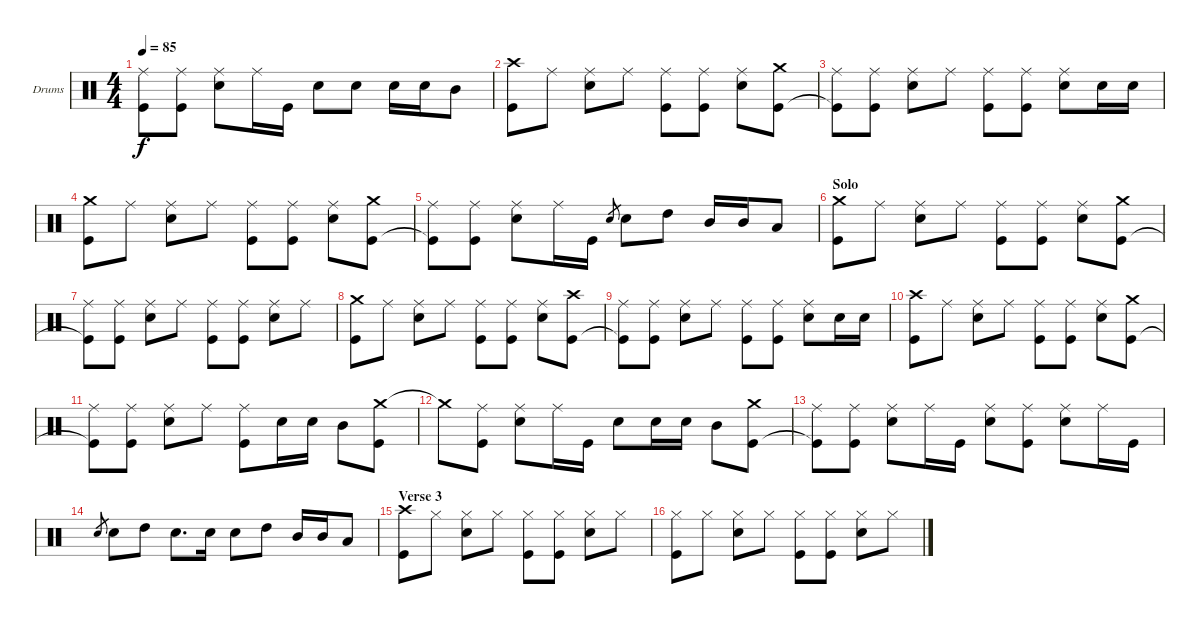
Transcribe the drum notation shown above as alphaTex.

\defaultSystemsLayout 4
\bracketExtendMode groupsimilarinstruments
\firstSystemTrackNameOrientation horizontal
\otherSystemsTrackNameOrientation horizontal
\track ("Matt" "Drums") {instrument percussion}
\staff {score}
\articulation defaults
\ts (4 4)
\tempo 85
\clef neutral
\ks c
("Ride (middle)" "Kick (hit)"{t}).8{dy f} ("Ride (middle)" "Kick (hit)").8 ("Ride (middle)" "Snare (hit) 2").8 "Ride (middle)".16 "Kick (hit)".16 "Snare (hit) 2".8 "Snare (hit) 2".8 "Snare (hit) 2".16 "Snare (hit) 2".16 "Mid Tom (hit)".8 |
("Crash high (hit)" "Kick (hit)").8 "Ride (middle)".8 ("Ride (middle)" "Snare (hit) 2").8 "Ride (middle)".8 ("Ride (middle)" "Kick (hit)").8 ("Ride (middle)" "Kick (hit)").8 ("Ride (middle)" "Snare (hit) 2").8 ("Crash medium (hit)" "Kick (hit)").8 |
("Ride (middle)" "Kick (hit)"{t}).8 ("Ride (middle)" "Kick (hit)").8 ("Ride (middle)" "Snare (hit) 2").8 "Ride (middle)".8 ("Ride (middle)" "Kick (hit)").8 ("Ride (middle)" "Kick (hit)").8 ("Ride (middle)" "Snare (hit) 2").8 "Snare (hit) 2".16 "Snare (hit) 2".16 |
("Crash medium (hit)" "Kick (hit)").8 "Ride (middle)".8 ("Ride (middle)" "Snare (hit) 2").8 "Ride (middle)".8 ("Ride (middle)" "Kick (hit)").8 ("Ride (middle)" "Kick (hit)").8 ("Ride (middle)" "Snare (hit) 2").8 ("Crash medium (hit)" "Kick (hit)").8 |
("Ride (middle)" "Kick (hit)"{t}).8 ("Ride (middle)" "Kick (hit)").8 ("Ride (middle)" "Snare (hit) 2").8 "Ride (middle)".16 "Kick (hit)".16 "Snare (hit) 2".8{gr} "Snare (hit) 2".8 "High Tom (hit)".8 "Mid Tom (hit)".16 "Mid Tom (hit)".16 "Low Tom (hit)".8 |
\section ("" "Solo")
("Crash medium (hit)" "Kick (hit)").8 "Ride (middle)".8 ("Ride (middle)" "Snare (hit) 2").8 "Ride (middle)".8 ("Ride (middle)" "Kick (hit)").8 ("Ride (middle)" "Kick (hit)").8 ("Ride (middle)" "Snare (hit) 2").8 ("Crash medium (hit)" "Kick (hit)").8 |
("Ride (middle)" "Kick (hit)"{t}).8 ("Ride (middle)" "Kick (hit)").8 ("Ride (middle)" "Snare (hit) 2").8 "Ride (middle)".8 ("Ride (middle)" "Kick (hit)").8 ("Ride (middle)" "Kick (hit)").8 ("Ride (middle)" "Snare (hit) 2").8 "Ride (middle)".8 |
("Crash medium (hit)" "Kick (hit)").8 "Ride (middle)".8 ("Ride (middle)" "Snare (hit) 2").8 "Ride (middle)".8 ("Ride (middle)" "Kick (hit)").8 ("Ride (middle)" "Kick (hit)").8 ("Ride (middle)" "Snare (hit) 2").8 ("Crash high (hit)" "Kick (hit)").8 |
("Ride (middle)" "Kick (hit)"{t}).8 ("Ride (middle)" "Kick (hit)").8 ("Ride (middle)" "Snare (hit) 2").8 "Ride (middle)".8 ("Ride (middle)" "Kick (hit)").8 ("Ride (middle)" "Kick (hit)").8 ("Ride (middle)" "Snare (hit) 2").8 "Snare (hit) 2".16 "Snare (hit) 2".16 |
("Crash high (hit)" "Kick (hit)").8 "Ride (middle)".8 ("Ride (middle)" "Snare (hit) 2").8 "Ride (middle)".8 ("Ride (middle)" "Kick (hit)").8 ("Ride (middle)" "Kick (hit)").8 ("Ride (middle)" "Snare (hit) 2").8 ("Crash medium (hit)" "Kick (hit)").8 |
("Ride (middle)" "Kick (hit)"{t}).8 ("Ride (middle)" "Kick (hit)").8 ("Ride (middle)" "Snare (hit) 2").8 "Ride (middle)".8 ("Ride (middle)" "Kick (hit)").8 "Snare (hit) 2".16 "Snare (hit) 2".16 "Mid Tom (hit)".8 ("Crash medium (hit)" "Kick (hit)").8 |
"Crash medium (hit)"{t}.8 ("Ride (middle)" "Kick (hit)").8 ("Ride (middle)" "Snare (hit) 2").8 "Ride (middle)".16 "Kick (hit)".16 "Snare (hit) 2".8 "Snare (hit) 2".16 "Snare (hit) 2".16 "Mid Tom (hit)".8 ("Crash medium (hit)" "Kick (hit)").8 |
("Ride (middle)" "Kick (hit)"{t}).8 ("Ride (middle)" "Kick (hit)").8 ("Ride (middle)" "Snare (hit) 2").8 "Ride (middle)".16 "Kick (hit)".16 ("Ride (middle)" "Snare (hit) 2").8 ("Ride (middle)" "Kick (hit)").8 ("Ride (middle)" "Snare (hit) 2").8 "Ride (middle)".16 "Kick (hit)".16 |
"Snare (hit) 2".8{gr} "Snare (hit) 2".8 "High Tom (hit)".8 "Snare (hit) 2".8{d} "Snare (hit) 2".16 "Snare (hit) 2".8 "High Tom (hit)".8 "Mid Tom (hit)".16 "Mid Tom (hit)".16 "Low Tom (hit)".8 |
\section ("" "Verse 3")
("Crash high (hit)" "Kick (hit)").8 "Hi-Hat (closed)".8 ("Hi-Hat (closed)" "Snare (hit) 2").8 "Hi-Hat (closed)".8 ("Hi-Hat (closed)" "Kick (hit)").8 ("Hi-Hat (closed)" "Kick (hit)").8 ("Hi-Hat (closed)" "Snare (hit) 2").8 "Hi-Hat (closed)".8 |
("Hi-Hat (closed)" "Kick (hit)").8 "Hi-Hat (closed)".8 ("Hi-Hat (closed)" "Snare (hit) 2").8 "Hi-Hat (closed)".8 ("Hi-Hat (closed)" "Kick (hit)").8 ("Hi-Hat (closed)" "Kick (hit)").8 ("Hi-Hat (closed)" "Snare (hit) 2").8 "Hi-Hat (closed)".8
